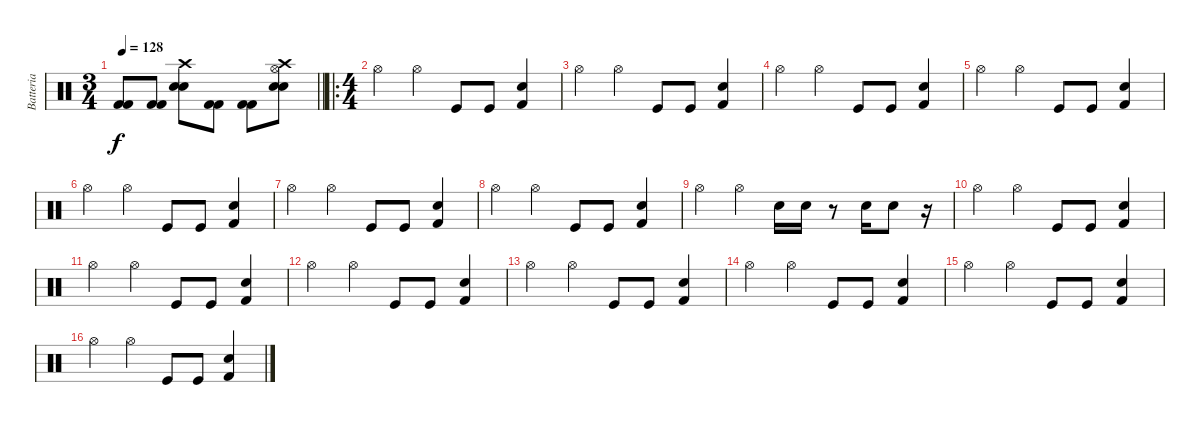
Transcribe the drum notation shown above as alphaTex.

\track ("Batteria" "Batteria") {instrument percussion}
\staff {score}
\articulation defaults
\ts (3 4)
\tempo 128
\clef neutral
\barLineRight lightlight
\ks c
("Kick (hit) 2" "Kick (hit) 2").8{dy f} ("Kick (hit) 2" "Kick (hit) 2").8 ("Crash high (hit)" "Electric Snare (hit)" "Snare (hit) 2").8 ("Kick (hit) 2" "Kick (hit) 2").8 ("Kick (hit) 2" "Kick (hit) 2").8 ("Hi-Hat (open)" "Crash high (hit)" "Snare (hit) 2" "Electric Snare (hit)").8 |
\ro
\ts (4 4)
"Hi-Hat (open)".4 "Hi-Hat (open)".4 "Kick (hit)".8 "Kick (hit)".8 ("Kick (hit) 2" "Snare (hit) 2").4 |
"Hi-Hat (open)".4 "Hi-Hat (open)".4 "Kick (hit)".8 "Kick (hit)".8 ("Kick (hit) 2" "Snare (hit) 2").4 |
"Hi-Hat (open)".4 "Hi-Hat (open)".4 "Kick (hit)".8 "Kick (hit)".8 ("Kick (hit) 2" "Snare (hit) 2").4 |
"Hi-Hat (open)".4 "Hi-Hat (open)".4 "Kick (hit)".8 "Kick (hit)".8 ("Kick (hit) 2" "Snare (hit) 2").4 |
"Hi-Hat (open)".4 "Hi-Hat (open)".4 "Kick (hit)".8 "Kick (hit)".8 ("Kick (hit) 2" "Snare (hit) 2").4 |
"Hi-Hat (open)".4 "Hi-Hat (open)".4 "Kick (hit)".8 "Kick (hit)".8 ("Kick (hit) 2" "Snare (hit) 2").4 |
"Hi-Hat (open)".4 "Hi-Hat (open)".4 "Kick (hit)".8 "Kick (hit)".8 ("Kick (hit) 2" "Snare (hit) 2").4 |
"Hi-Hat (open)".4 "Hi-Hat (open)".4 "Snare (hit) 2".16 "Snare (hit) 2".16 r.8 "Snare (hit) 2".16 "Snare (hit) 2".8 r.16 |
"Hi-Hat (open)".4 "Hi-Hat (open)".4 "Kick (hit)".8 "Kick (hit)".8 ("Kick (hit) 2" "Snare (hit) 2").4 |
"Hi-Hat (open)".4 "Hi-Hat (open)".4 "Kick (hit)".8 "Kick (hit)".8 ("Kick (hit) 2" "Snare (hit) 2").4 |
"Hi-Hat (open)".4 "Hi-Hat (open)".4 "Kick (hit)".8 "Kick (hit)".8 ("Kick (hit) 2" "Snare (hit) 2").4 |
"Hi-Hat (open)".4 "Hi-Hat (open)".4 "Kick (hit)".8 "Kick (hit)".8 ("Kick (hit) 2" "Snare (hit) 2").4 |
"Hi-Hat (open)".4 "Hi-Hat (open)".4 "Kick (hit)".8 "Kick (hit)".8 ("Kick (hit) 2" "Snare (hit) 2").4 |
"Hi-Hat (open)".4 "Hi-Hat (open)".4 "Kick (hit)".8 "Kick (hit)".8 ("Kick (hit) 2" "Snare (hit) 2").4 |
"Hi-Hat (open)".4 "Hi-Hat (open)".4 "Kick (hit)".8 "Kick (hit)".8 ("Kick (hit) 2" "Snare (hit) 2").4
